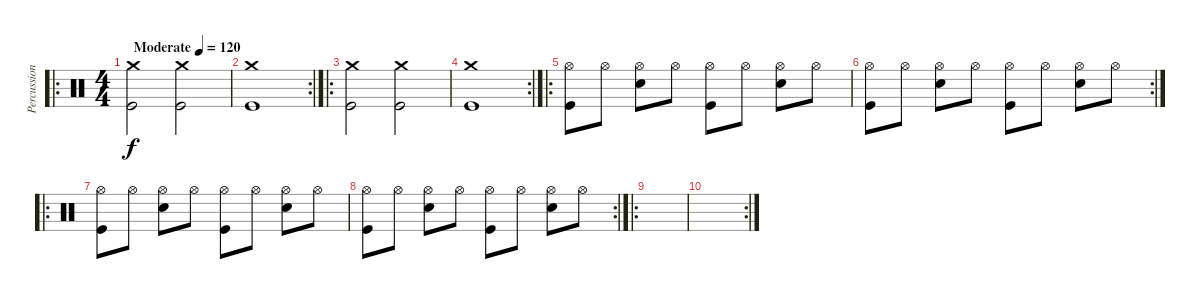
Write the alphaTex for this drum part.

\track ("Percussion" "Percussion") {instrument percussion}
\staff {score}
\articulation defaults
\ro
\ts (4 4)
\tempo (120 "Moderate")
\clef neutral
\ks c
("Crash medium (hit)" "Kick (hit)").2{dy f} ("Crash medium (hit)" "Kick (hit)").2 |
\rc 2
("Crash medium (hit)" "Kick (hit)").1 |
\ro
("Crash medium (hit)" "Kick (hit)").2 ("Crash medium (hit)" "Kick (hit)").2 |
\rc 2
("Crash medium (hit)" "Kick (hit)").1 |
\ro
("Hi-Hat (open)" "Kick (hit)").8 "Hi-Hat (open)".8 ("Hi-Hat (open)" "Snare (hit) 2").8 "Hi-Hat (open)".8 ("Hi-Hat (open)" "Kick (hit)").8 "Hi-Hat (open)".8 ("Hi-Hat (open)" "Snare (hit) 2").8 "Hi-Hat (open)".8 |
\rc 2
("Hi-Hat (open)" "Kick (hit)").8 "Hi-Hat (open)".8 ("Hi-Hat (open)" "Snare (hit) 2").8 "Hi-Hat (open)".8 ("Hi-Hat (open)" "Kick (hit)").8 "Hi-Hat (open)".8 ("Hi-Hat (open)" "Snare (hit) 2").8 "Hi-Hat (open)".8 |
\ro
("Hi-Hat (open)" "Kick (hit)").8 "Hi-Hat (open)".8 ("Hi-Hat (open)" "Snare (hit) 2").8 "Hi-Hat (open)".8 ("Hi-Hat (open)" "Kick (hit)").8 "Hi-Hat (open)".8 ("Hi-Hat (open)" "Snare (hit) 2").8 "Hi-Hat (open)".8 |
\rc 2
("Hi-Hat (open)" "Kick (hit)").8 "Hi-Hat (open)".8 ("Hi-Hat (open)" "Snare (hit) 2").8 "Hi-Hat (open)".8 ("Hi-Hat (open)" "Kick (hit)").8 "Hi-Hat (open)".8 ("Hi-Hat (open)" "Snare (hit) 2").8 "Hi-Hat (open)".8 |
\ro
|
\rc 2
